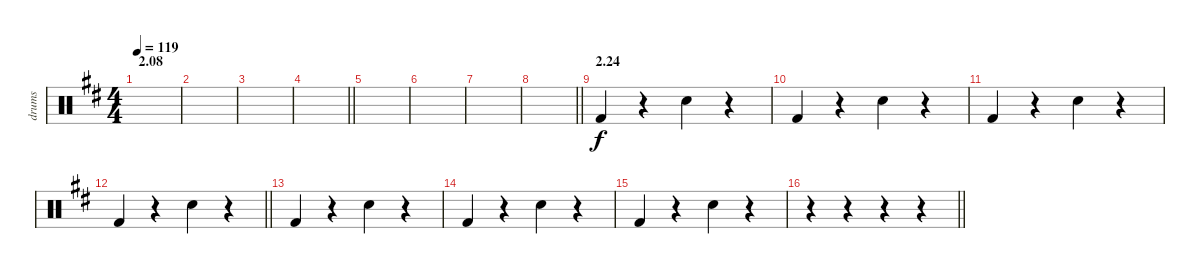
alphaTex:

\track ("drums" "drums") {instrument percussion}
\staff {score}
\articulation defaults
\ts (4 4)
\section ("" "2.08")
\tempo 119
\clef neutral
\ks d
|
|
|
\barLineRight lightlight
|
|
|
|
\barLineRight lightlight
|
\section ("" "2.24")
"Kick (hit) 2".4 r.4 "Electric Snare (hit)".4 r.4 |
"Kick (hit) 2".4 r.4 "Electric Snare (hit)".4 r.4 |
"Kick (hit) 2".4 r.4 "Electric Snare (hit)".4 r.4 |
\barLineRight lightlight "Kick (hit) 2".4
r.4 "Electric Snare (hit)".4 r.4 |
"Kick (hit) 2".4 r.4 "Electric Snare (hit)".4 r.4 |
"Kick (hit) 2".4 r.4 "Electric Snare (hit)".4 r.4 |
"Kick (hit) 2".4 r.4 "Electric Snare (hit)".4 r.4 |
\barLineRight lightlight
r.4 r.4 r.4 r.4
